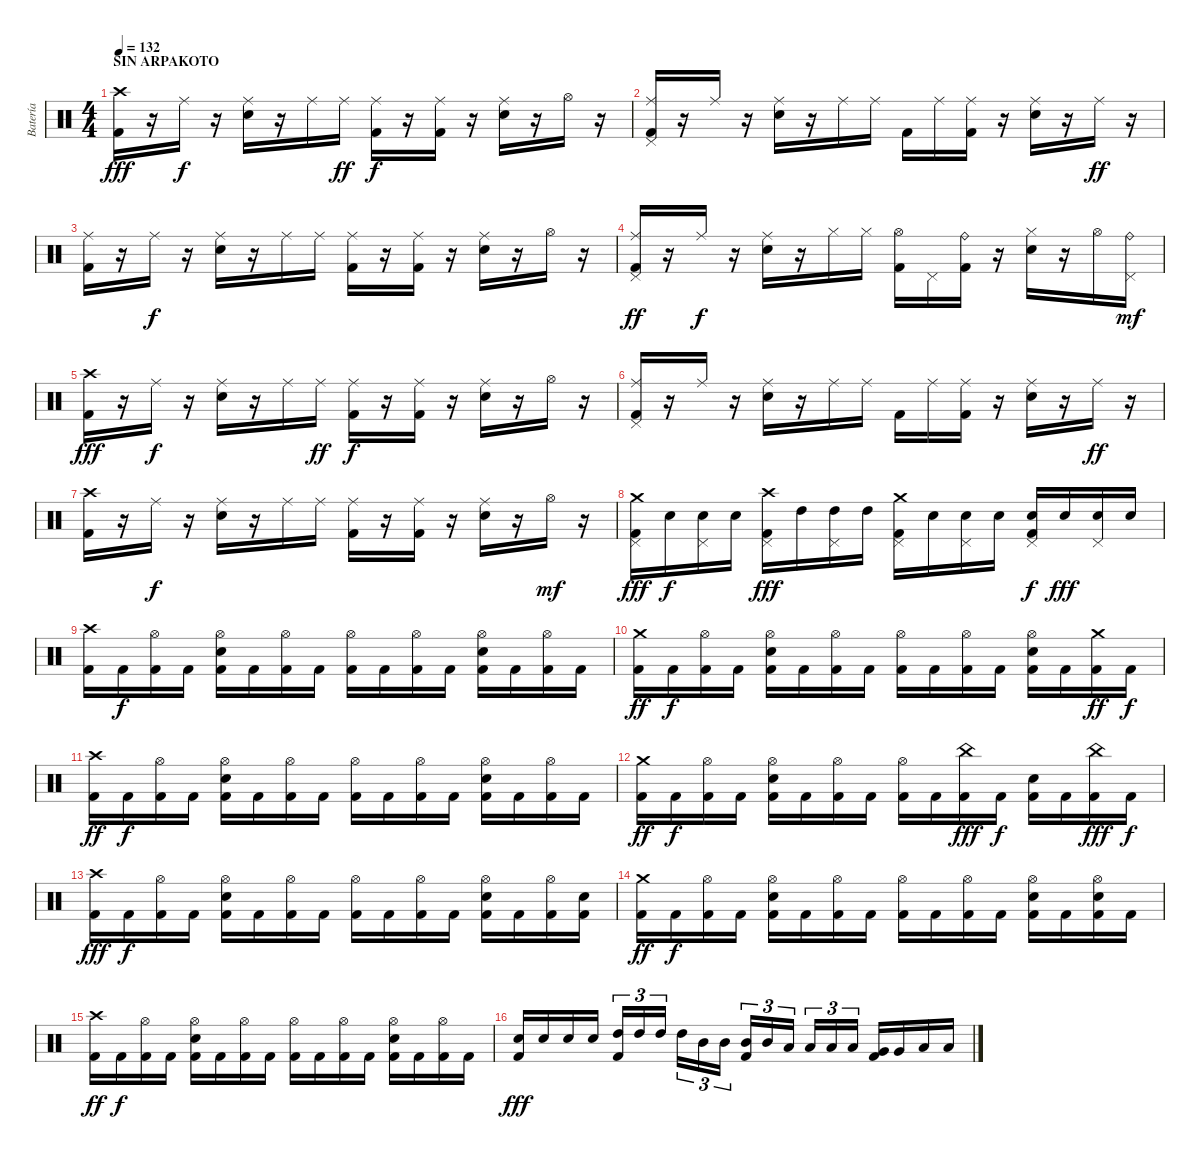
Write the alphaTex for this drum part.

\track ("Batería" "Batería") {instrument percussion}
\staff {score}
\articulation defaults
\ts (4 4)
\section ("" "SIN ARPAKOTO")
\tempo 132
\clef neutral
\ks c
("Crash high (hit)" "Kick (hit) 2").16{dy fff volume 16} r.16{volume 14} "Ride (middle)".16{dy f} r.16 ("Ride (middle)" "Snare (hit) 2").16 r.16 "Ride (middle)".16 "Ride (middle)".16{dy ff} ("Ride (middle)" "Kick (hit) 2").16{dy f} r.16 ("Ride (middle)" "Kick (hit) 2").16 r.16 ("Ride (middle)" "Snare (hit) 2").16 r.16 "Hi-Hat (open)".16 r.16 |
("Ride (middle)" "Pedal Hi-Hat (hit)" "Kick (hit) 2").16 r.16 "Ride (middle)".16 r.16 ("Ride (middle)" "Snare (hit) 2").16 r.16 "Ride (middle)".16 "Ride (middle)".16 "Kick (hit) 2".16 "Ride (middle)".16 ("Ride (middle)" "Kick (hit) 2").16 r.16 ("Ride (middle)" "Snare (hit) 2").16 r.16 "Ride (middle)".16{dy ff} r.16 |
("Ride (middle)" "Kick (hit) 2").16 r.16 "Ride (middle)".16{dy f} r.16 ("Ride (middle)" "Snare (hit) 2").16 r.16 "Ride (middle)".16 "Ride (middle)".16 ("Ride (middle)" "Kick (hit) 2").16 r.16 ("Ride (middle)" "Kick (hit) 2").16 r.16 ("Ride (middle)" "Snare (hit) 2").16 r.16 "Hi-Hat (open)".16 r.16 |
("Ride (middle)" "Pedal Hi-Hat (hit)" "Kick (hit) 2").16{dy ff} r.16 "Ride (middle)".16{dy f} r.16 ("Ride (middle)" "Snare (hit) 2").16 r.16 "Hi-Hat (closed)".16 "Hi-Hat (closed)".16 ("Hi-Hat (open)" "Kick (hit) 2").16 "Pedal Hi-Hat (hit)".16 ("Ride (bell)" "Kick (hit) 2").16 r.16 ("Hi-Hat (closed)" "Snare (hit) 2").16 r.16 "Hi-Hat (open)".16 ("Pedal Hi-Hat (hit)" "Ride (bell)").16{dy mf} |
("Crash high (hit)" "Kick (hit) 2").16{dy fff volume 16} r.16{volume 14} "Ride (middle)".16{dy f} r.16 ("Ride (middle)" "Snare (hit) 2").16 r.16 "Ride (middle)".16 "Ride (middle)".16{dy ff} ("Ride (middle)" "Kick (hit) 2").16{dy f} r.16 ("Ride (middle)" "Kick (hit) 2").16 r.16 ("Ride (middle)" "Snare (hit) 2").16 r.16 "Hi-Hat (open)".16 r.16 |
("Ride (middle)" "Pedal Hi-Hat (hit)" "Kick (hit) 2").16 r.16 "Ride (middle)".16 r.16 ("Ride (middle)" "Snare (hit) 2").16 r.16 "Ride (middle)".16 "Ride (middle)".16 "Kick (hit) 2".16 "Ride (middle)".16 ("Ride (middle)" "Kick (hit) 2").16 r.16 ("Ride (middle)" "Snare (hit) 2").16 r.16 "Ride (middle)".16{dy ff} r.16 |
("Crash high (hit)" "Kick (hit) 2").16 r.16 "Ride (middle)".16{dy f} r.16 ("Ride (middle)" "Snare (hit) 2").16 r.16 "Ride (middle)".16 "Ride (middle)".16 ("Ride (middle)" "Kick (hit) 2").16 r.16 ("Ride (middle)" "Kick (hit) 2").16 r.16 ("Ride (middle)" "Snare (hit) 2").16 r.16 "Hi-Hat (open)".16{dy mf} r.16 |
("Pedal Hi-Hat (hit)" "Crash medium (hit)" "Kick (hit) 2").16{dy fff volume 15} "Snare (hit) 2".16{dy f} ("Pedal Hi-Hat (hit)" "Snare (hit) 2").16 "Snare (hit) 2".16 ("Pedal Hi-Hat (hit)" "Crash high (hit)" "Kick (hit) 2").16{dy fff} "High Tom (hit)".16 ("Pedal Hi-Hat (hit)" "High Tom (hit)").16 "High Tom (hit)".16 ("Pedal Hi-Hat (hit)" "Crash medium (hit)" "Kick (hit) 2").16 "Snare (hit) 2".16 ("Pedal Hi-Hat (hit)" "Snare (hit) 2").16 "Snare (hit) 2".16 ("Pedal Hi-Hat (hit)" "Kick (hit) 2" "Snare (hit) 2").16{dy f} "Snare (hit) 2".16{dy fff} ("Pedal Hi-Hat (hit)" "Snare (hit) 2").16 "Snare (hit) 2".16 |
("Crash high (hit)" "Kick (hit) 2").16{volume 16} "Kick (hit) 2".16{dy f volume 14} ("Hi-Hat (open)" "Kick (hit) 2").16 "Kick (hit) 2".16 ("Hi-Hat (open)" "Kick (hit) 2" "Snare (hit) 2").16 "Kick (hit) 2".16 ("Hi-Hat (open)" "Kick (hit) 2").16 "Kick (hit) 2".16 ("Hi-Hat (open)" "Kick (hit) 2").16 "Kick (hit) 2".16 ("Hi-Hat (open)" "Kick (hit) 2").16 "Kick (hit) 2".16 ("Hi-Hat (open)" "Kick (hit) 2" "Snare (hit) 2").16 "Kick (hit) 2".16 ("Hi-Hat (open)" "Kick (hit) 2").16 "Kick (hit) 2".16 |
("Crash medium (hit)" "Kick (hit) 2").16{dy ff} "Kick (hit) 2".16{dy f} ("Hi-Hat (open)" "Kick (hit) 2").16 "Kick (hit) 2".16 ("Hi-Hat (open)" "Kick (hit) 2" "Snare (hit) 2").16 "Kick (hit) 2".16 ("Hi-Hat (open)" "Kick (hit) 2").16 "Kick (hit) 2".16 ("Hi-Hat (open)" "Kick (hit) 2").16 "Kick (hit) 2".16 ("Hi-Hat (open)" "Kick (hit) 2").16 "Kick (hit) 2".16 ("Hi-Hat (open)" "Kick (hit) 2" "Snare (hit) 2").16 "Kick (hit) 2".16 ("Crash medium (hit)" "Kick (hit) 2").16{dy ff} "Kick (hit) 2".16{dy f} |
("Crash high (hit)" "Kick (hit) 2").16{dy ff} "Kick (hit) 2".16{dy f} ("Hi-Hat (open)" "Kick (hit) 2").16 "Kick (hit) 2".16 ("Hi-Hat (open)" "Kick (hit) 2" "Snare (hit) 2").16 "Kick (hit) 2".16 ("Hi-Hat (open)" "Kick (hit) 2").16 "Kick (hit) 2".16 ("Hi-Hat (open)" "Kick (hit) 2").16 "Kick (hit) 2".16 ("Hi-Hat (open)" "Kick (hit) 2").16 "Kick (hit) 2".16 ("Hi-Hat (open)" "Kick (hit) 2" "Snare (hit) 2").16 "Kick (hit) 2".16 ("Hi-Hat (open)" "Kick (hit) 2").16 "Kick (hit) 2".16 |
("Crash medium (hit)" "Kick (hit) 2").16{dy ff} "Kick (hit) 2".16{dy f} ("Hi-Hat (open)" "Kick (hit) 2").16 "Kick (hit) 2".16 ("Hi-Hat (open)" "Kick (hit) 2" "Snare (hit) 2").16 "Kick (hit) 2".16 ("Hi-Hat (open)" "Kick (hit) 2").16 "Kick (hit) 2".16 ("Hi-Hat (open)" "Kick (hit) 2").16 "Kick (hit) 2".16 ("China (hit)" "Kick (hit) 2").16{dy fff} "Kick (hit) 2".16{dy f} ("Kick (hit) 2" "Snare (hit) 2").16 "Kick (hit) 2".16 ("China (hit)" "Kick (hit) 2").16{dy fff} "Kick (hit) 2".16{dy f} |
("Crash high (hit)" "Kick (hit) 2").16{dy fff} "Kick (hit) 2".16{dy f} ("Hi-Hat (open)" "Kick (hit) 2").16 "Kick (hit) 2".16 ("Hi-Hat (open)" "Kick (hit) 2" "Snare (hit) 2").16 "Kick (hit) 2".16 ("Hi-Hat (open)" "Kick (hit) 2").16 "Kick (hit) 2".16 ("Hi-Hat (open)" "Kick (hit) 2").16 "Kick (hit) 2".16 ("Hi-Hat (open)" "Kick (hit) 2").16 "Kick (hit) 2".16 ("Hi-Hat (open)" "Kick (hit) 2" "Snare (hit) 2").16 "Kick (hit) 2".16 ("Hi-Hat (open)" "Kick (hit) 2").16 ("Kick (hit) 2" "Snare (hit) 2").16 |
("Crash medium (hit)" "Kick (hit) 2").16{dy ff} "Kick (hit) 2".16{dy f} ("Hi-Hat (open)" "Kick (hit) 2").16 "Kick (hit) 2".16 ("Hi-Hat (open)" "Kick (hit) 2" "Snare (hit) 2").16 "Kick (hit) 2".16 ("Hi-Hat (open)" "Kick (hit) 2").16 "Kick (hit) 2".16 ("Hi-Hat (open)" "Kick (hit) 2").16 "Kick (hit) 2".16 ("Hi-Hat (open)" "Kick (hit) 2").16 "Kick (hit) 2".16 ("Hi-Hat (open)" "Kick (hit) 2" "Snare (hit) 2").16 "Kick (hit) 2".16 ("Hi-Hat (open)" "Kick (hit) 2" "Snare (hit) 2").16 "Kick (hit) 2".16 |
("Crash high (hit)" "Kick (hit) 2").16{dy ff} "Kick (hit) 2".16{dy f} ("Hi-Hat (open)" "Kick (hit) 2").16 "Kick (hit) 2".16 ("Hi-Hat (open)" "Kick (hit) 2" "Snare (hit) 2").16 "Kick (hit) 2".16 ("Hi-Hat (open)" "Kick (hit) 2").16 "Kick (hit) 2".16 ("Hi-Hat (open)" "Kick (hit) 2").16 "Kick (hit) 2".16 ("Hi-Hat (open)" "Kick (hit) 2").16 "Kick (hit) 2".16 ("Hi-Hat (open)" "Kick (hit) 2" "Snare (hit) 2").16 "Kick (hit) 2".16 ("Hi-Hat (open)" "Kick (hit) 2").16 "Kick (hit) 2".16 |
("Kick (hit) 2" "Snare (hit) 2").16{dy fff volume 16} "Snare (hit) 2".16 "Snare (hit) 2".16 "Snare (hit) 2".16 ("Kick (hit) 2" "High Tom (hit)").16{tu (3 2)} "High Tom (hit)".16{tu (3 2)} "High Tom (hit)".16{tu (3 2)} "High Tom (hit)".16{tu (3 2)} "Mid Tom (hit)".16{tu (3 2)} "Mid Tom (hit)".16{tu (3 2)} ("Kick (hit) 2" "Mid Tom (hit)").16{tu (3 2)} "Mid Tom (hit)".16{tu (3 2)} "Low Tom (hit)".16{tu (3 2)} "Low Tom (hit)".16{tu (3 2)} "Low Tom (hit)".16{tu (3 2)} "Low Tom (hit)".16{tu (3 2)} ("Kick (hit) 2" "Very Low Tom (hit)").16 "Very Low Tom (hit)".16 "Low Floor Tom (hit)".16 "Low Floor Tom (hit)".16
